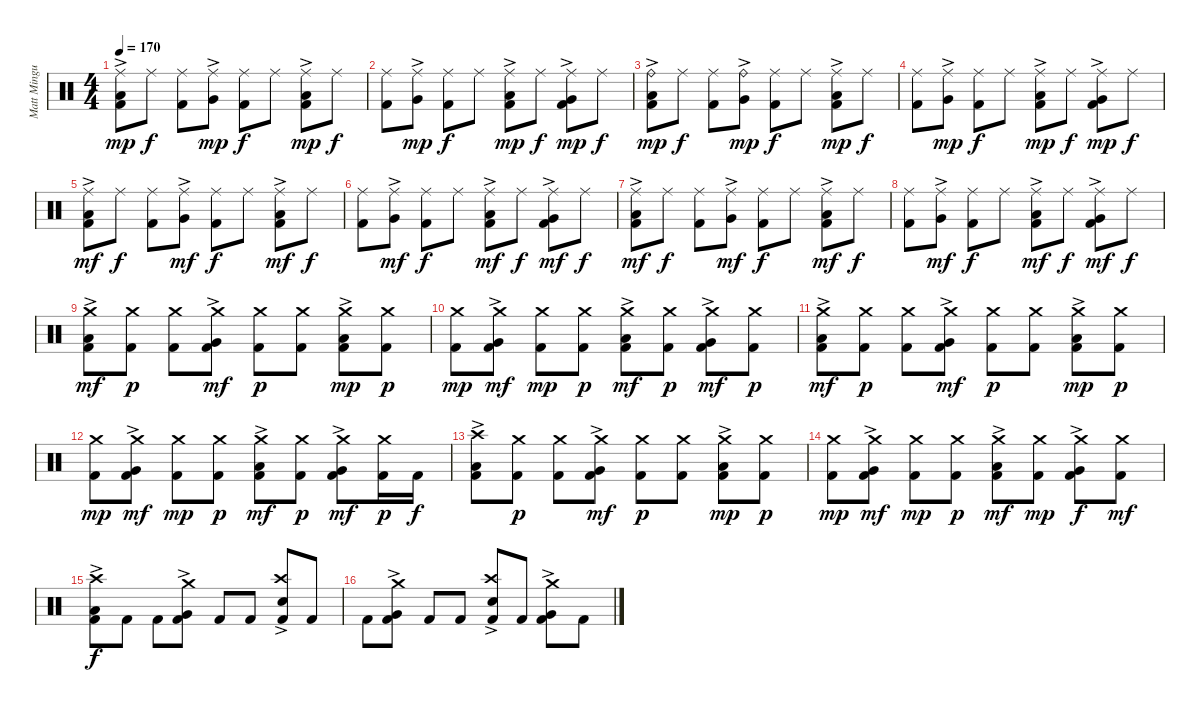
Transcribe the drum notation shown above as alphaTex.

\track ("Matt Mingus (Drum Kit)" "Matt Mingu") {instrument percussion}
\staff {score}
\articulation defaults
\ts (4 4)
\tempo 170
\clef neutral
\ks c
("Ride (middle)"{ac} "Low Tom (hit)" "Kick (hit) 2").8{dy mp} "Ride (middle)".8{dy f} ("Ride (middle)" "Kick (hit) 2").8 ("Ride (middle)"{ac} "Very Low Tom (hit)").8{dy mp} ("Ride (middle)" "Kick (hit) 2").8{dy f} "Ride (middle)".8 ("Ride (middle)"{ac} "Low Tom (hit)" "Kick (hit) 2").8{dy mp} "Ride (middle)".8{dy f} |
("Ride (middle)" "Kick (hit) 2").8 ("Ride (middle)"{ac} "Very Low Tom (hit)").8{dy mp} ("Ride (middle)" "Kick (hit) 2").8{dy f} "Ride (middle)".8 ("Ride (middle)"{ac} "Low Tom (hit)" "Kick (hit) 2").8{dy mp} "Ride (middle)".8{dy f} ("Ride (middle)"{ac} "Very Low Tom (hit)" "Kick (hit) 2").8{dy mp} "Ride (middle)".8{dy f} |
("Ride (bell)"{ac} "Low Tom (hit)" "Kick (hit) 2").8{dy mp} "Ride (middle)".8{dy f} ("Ride (middle)" "Kick (hit) 2").8 ("Ride (bell)"{ac} "Very Low Tom (hit)").8{dy mp} ("Ride (middle)" "Kick (hit) 2").8{dy f} "Ride (middle)".8 ("Ride (middle)"{ac} "Low Tom (hit)" "Kick (hit) 2").8{dy mp} "Ride (middle)".8{dy f} |
("Ride (middle)" "Kick (hit) 2").8 ("Ride (middle)"{ac} "Very Low Tom (hit)").8{dy mp} ("Ride (middle)" "Kick (hit) 2").8{dy f} "Ride (middle)".8 ("Ride (middle)"{ac} "Low Tom (hit)" "Kick (hit) 2").8{dy mp} "Ride (middle)".8{dy f} ("Ride (middle)"{ac} "Very Low Tom (hit)" "Kick (hit) 2").8{dy mp} "Ride (middle)".8{dy f} |
("Ride (middle)"{ac} "Low Tom (hit)" "Kick (hit) 2").8{dy mf} "Ride (middle)".8{dy f} ("Ride (middle)" "Kick (hit) 2").8 ("Ride (middle)"{ac} "Very Low Tom (hit)").8{dy mf} ("Ride (middle)" "Kick (hit) 2").8{dy f} "Ride (middle)".8 ("Ride (middle)"{ac} "Low Tom (hit)" "Kick (hit) 2").8{dy mf} "Ride (middle)".8{dy f} |
("Ride (middle)" "Kick (hit) 2").8 ("Ride (middle)"{ac} "Very Low Tom (hit)").8{dy mf} ("Ride (middle)" "Kick (hit) 2").8{dy f} "Ride (middle)".8 ("Ride (middle)"{ac} "Low Tom (hit)" "Kick (hit) 2").8{dy mf} "Ride (middle)".8{dy f} ("Ride (middle)"{ac} "Very Low Tom (hit)" "Kick (hit) 2").8{dy mf} "Ride (middle)".8{dy f} |
("Ride (middle)"{ac} "Low Tom (hit)" "Kick (hit) 2").8{dy mf} "Ride (middle)".8{dy f} ("Ride (middle)" "Kick (hit) 2").8 ("Ride (middle)"{ac} "Very Low Tom (hit)").8{dy mf} ("Ride (middle)" "Kick (hit) 2").8{dy f} "Ride (middle)".8 ("Ride (middle)"{ac} "Low Tom (hit)" "Kick (hit) 2").8{dy mf} "Ride (middle)".8{dy f} |
("Ride (middle)" "Kick (hit) 2").8 ("Ride (middle)"{ac} "Very Low Tom (hit)").8{dy mf} ("Ride (middle)" "Kick (hit) 2").8{dy f} "Ride (middle)".8 ("Ride (middle)"{ac} "Low Tom (hit)" "Kick (hit) 2").8{dy mf} "Ride (middle)".8{dy f} ("Ride (middle)"{ac} "Very Low Tom (hit)" "Kick (hit) 2").8{dy mf} "Ride (middle)".8{dy f} |
("Crash medium (hit)"{ac} "Low Tom (hit)" "Kick (hit) 2").8{dy mf} ("Crash medium (hit)" "Kick (hit) 2").8{dy p} ("Crash medium (hit)" "Kick (hit) 2").8 ("Crash medium (hit)"{ac} "Very Low Tom (hit)" "Kick (hit) 2").8{dy mf} ("Crash medium (hit)" "Kick (hit) 2").8{dy p} ("Crash medium (hit)" "Kick (hit) 2").8 ("Crash medium (hit)"{ac} "Low Tom (hit)" "Kick (hit) 2").8{dy mp} ("Crash medium (hit)" "Kick (hit) 2").8{dy p} |
("Crash medium (hit)" "Kick (hit) 2").8{dy mp} ("Crash medium (hit)"{ac} "Very Low Tom (hit)" "Kick (hit) 2").8{dy mf} ("Crash medium (hit)" "Kick (hit) 2").8{dy mp} ("Crash medium (hit)" "Kick (hit) 2").8{dy p} ("Crash medium (hit)"{ac} "Low Tom (hit)" "Kick (hit) 2").8{dy mf} ("Crash medium (hit)" "Kick (hit) 2").8{dy p} ("Crash medium (hit)"{ac} "Very Low Tom (hit)" "Kick (hit) 2").8{dy mf} ("Crash medium (hit)" "Kick (hit) 2").8{dy p} |
("Crash medium (hit)"{ac} "Low Tom (hit)" "Kick (hit) 2").8{dy mf} ("Crash medium (hit)" "Kick (hit) 2").8{dy p} ("Crash medium (hit)" "Kick (hit) 2").8 ("Crash medium (hit)"{ac} "Very Low Tom (hit)" "Kick (hit) 2").8{dy mf} ("Crash medium (hit)" "Kick (hit) 2").8{dy p} ("Crash medium (hit)" "Kick (hit) 2").8 ("Crash medium (hit)"{ac} "Low Tom (hit)" "Kick (hit) 2").8{dy mp} ("Crash medium (hit)" "Kick (hit) 2").8{dy p} |
("Crash medium (hit)" "Kick (hit) 2").8{dy mp} ("Crash medium (hit)"{ac} "Very Low Tom (hit)" "Kick (hit) 2").8{dy mf} ("Crash medium (hit)" "Kick (hit) 2").8{dy mp} ("Crash medium (hit)" "Kick (hit) 2").8{dy p} ("Crash medium (hit)"{ac} "Low Tom (hit)" "Kick (hit) 2").8{dy mf} ("Crash medium (hit)" "Kick (hit) 2").8{dy p} ("Crash medium (hit)"{ac} "Very Low Tom (hit)" "Kick (hit) 2").8{dy mf} ("Crash medium (hit)" "Kick (hit) 2").16{dy p} "Kick (hit) 2".16{dy f} |
("Crash high (hit)"{ac} "Low Tom (hit)" "Kick (hit) 2").8 ("Crash medium (hit)" "Kick (hit) 2").8{dy p} ("Crash medium (hit)" "Kick (hit) 2").8 ("Crash medium (hit)"{ac} "Very Low Tom (hit)" "Kick (hit) 2").8{dy mf} ("Crash medium (hit)" "Kick (hit) 2").8{dy p} ("Crash medium (hit)" "Kick (hit) 2").8 ("Crash medium (hit)"{ac} "Low Tom (hit)" "Kick (hit) 2").8{dy mp} ("Crash medium (hit)" "Kick (hit) 2").8{dy p} |
("Crash medium (hit)" "Kick (hit) 2").8{dy mp} ("Crash medium (hit)"{ac} "Very Low Tom (hit)" "Kick (hit) 2").8{dy mf} ("Crash medium (hit)" "Kick (hit) 2").8{dy mp} ("Crash medium (hit)" "Kick (hit) 2").8{dy p} ("Crash medium (hit)"{ac} "Low Tom (hit)" "Kick (hit) 2").8{dy mf} ("Crash medium (hit)" "Kick (hit) 2").8{dy mp} ("Crash medium (hit)"{ac} "Very Low Tom (hit)" "Kick (hit) 2").8{dy f} ("Crash medium (hit)" "Kick (hit) 2").8{dy mf} |
("Crash high (hit)"{ac} "Low Tom (hit)" "Kick (hit) 2").8{dy f} "Kick (hit) 2".8 "Kick (hit) 2".8 ("Crash medium (hit)"{ac} "Very Low Tom (hit)" "Kick (hit) 2").8 "Kick (hit) 2".8 "Kick (hit) 2".8 ("Crash high (hit)"{ac} "Electric Snare (hit)" "Kick (hit) 2").8 "Kick (hit) 2".8 |
"Kick (hit) 2".8 ("Crash medium (hit)"{ac} "Very Low Tom (hit)" "Kick (hit) 2").8 "Kick (hit) 2".8 "Kick (hit) 2".8 ("Crash high (hit)"{ac} "Electric Snare (hit)" "Kick (hit) 2").8 "Kick (hit) 2".8 ("Crash medium (hit)"{ac} "Very Low Tom (hit)" "Kick (hit) 2").8 "Kick (hit) 2".8
